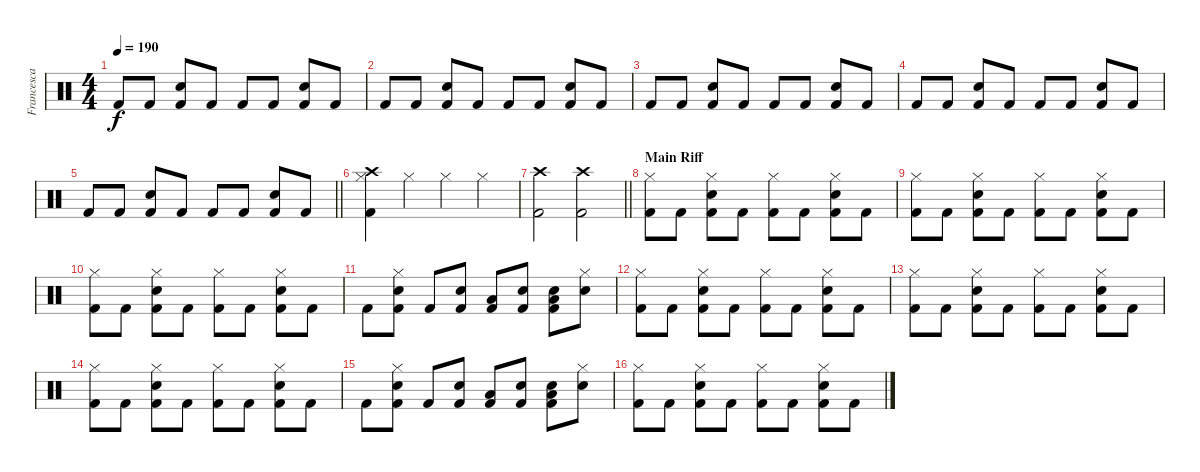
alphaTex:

\track ("Francesca Tresca" "Francesca ") {instrument percussion}
\staff {score}
\articulation defaults
\ts (4 4)
\tempo 190
\clef neutral
\ks c "Kick (hit) 2".8{dy f} "Kick (hit) 2".8
("Snare (hit) 2" "Kick (hit) 2").8 "Kick (hit) 2".8 "Kick (hit) 2".8 "Kick (hit) 2".8 ("Snare (hit) 2" "Kick (hit) 2").8 "Kick (hit) 2".8 |
"Kick (hit) 2".8 "Kick (hit) 2".8 ("Snare (hit) 2" "Kick (hit) 2").8 "Kick (hit) 2".8 "Kick (hit) 2".8 "Kick (hit) 2".8 ("Snare (hit) 2" "Kick (hit) 2").8 "Kick (hit) 2".8 |
"Kick (hit) 2".8 "Kick (hit) 2".8 ("Snare (hit) 2" "Kick (hit) 2").8 "Kick (hit) 2".8 "Kick (hit) 2".8 "Kick (hit) 2".8 ("Snare (hit) 2" "Kick (hit) 2").8 "Kick (hit) 2".8 |
"Kick (hit) 2".8 "Kick (hit) 2".8 ("Snare (hit) 2" "Kick (hit) 2").8 "Kick (hit) 2".8 "Kick (hit) 2".8 "Kick (hit) 2".8 ("Snare (hit) 2" "Kick (hit) 2").8 "Kick (hit) 2".8 |
\barLineRight lightlight "Kick (hit) 2".8 "Kick (hit) 2".8
("Snare (hit) 2" "Kick (hit) 2").8 "Kick (hit) 2".8 "Kick (hit) 2".8 "Kick (hit) 2".8 ("Snare (hit) 2" "Kick (hit) 2").8 "Kick (hit) 2".8 |
("Hi-Hat (closed)" "Crash high (hit)" "Kick (hit) 2").4 "Hi-Hat (closed)".4 "Hi-Hat (closed)".4 "Hi-Hat (closed)".4 |
\barLineRight lightlight
("Crash high (hit)" "Kick (hit) 2").2 ("Crash high (hit)" "Kick (hit) 2").2 |
\section ("" "Main Riff")
("Hi-Hat (closed)" "Kick (hit) 2").8 "Kick (hit) 2".8 ("Hi-Hat (closed)" "Snare (hit) 2" "Kick (hit) 2").8 "Kick (hit) 2".8 ("Hi-Hat (closed)" "Kick (hit) 2").8 "Kick (hit) 2".8 ("Hi-Hat (closed)" "Snare (hit) 2" "Kick (hit) 2").8 "Kick (hit) 2".8 |
("Hi-Hat (closed)" "Kick (hit) 2").8 "Kick (hit) 2".8 ("Hi-Hat (closed)" "Snare (hit) 2" "Kick (hit) 2").8 "Kick (hit) 2".8 ("Hi-Hat (closed)" "Kick (hit) 2").8 "Kick (hit) 2".8 ("Hi-Hat (closed)" "Snare (hit) 2" "Kick (hit) 2").8 "Kick (hit) 2".8 |
("Hi-Hat (closed)" "Kick (hit) 2").8 "Kick (hit) 2".8 ("Hi-Hat (closed)" "Snare (hit) 2" "Kick (hit) 2").8 "Kick (hit) 2".8 ("Hi-Hat (closed)" "Kick (hit) 2").8 "Kick (hit) 2".8 ("Hi-Hat (closed)" "Snare (hit) 2" "Kick (hit) 2").8 "Kick (hit) 2".8 |
"Kick (hit) 2".8 ("Hi-Hat (closed)" "Snare (hit) 2" "Kick (hit) 2").8 "Kick (hit) 2".8 ("Snare (hit) 2" "Kick (hit) 2").8 ("Low Tom (hit)" "Kick (hit) 2").8 ("Snare (hit) 2" "Kick (hit) 2").8 ("Low Tom (hit)" "Snare (hit) 2" "Kick (hit) 2").8 ("Hi-Hat (closed)" "Snare (hit) 2").8 |
("Hi-Hat (closed)" "Kick (hit) 2").8 "Kick (hit) 2".8 ("Hi-Hat (closed)" "Snare (hit) 2" "Kick (hit) 2").8 "Kick (hit) 2".8 ("Hi-Hat (closed)" "Kick (hit) 2").8 "Kick (hit) 2".8 ("Hi-Hat (closed)" "Snare (hit) 2" "Kick (hit) 2").8 "Kick (hit) 2".8 |
("Hi-Hat (closed)" "Kick (hit) 2").8 "Kick (hit) 2".8 ("Hi-Hat (closed)" "Snare (hit) 2" "Kick (hit) 2").8 "Kick (hit) 2".8 ("Hi-Hat (closed)" "Kick (hit) 2").8 "Kick (hit) 2".8 ("Hi-Hat (closed)" "Snare (hit) 2" "Kick (hit) 2").8 "Kick (hit) 2".8 |
("Hi-Hat (closed)" "Kick (hit) 2").8 "Kick (hit) 2".8 ("Hi-Hat (closed)" "Snare (hit) 2" "Kick (hit) 2").8 "Kick (hit) 2".8 ("Hi-Hat (closed)" "Kick (hit) 2").8 "Kick (hit) 2".8 ("Hi-Hat (closed)" "Snare (hit) 2" "Kick (hit) 2").8 "Kick (hit) 2".8 |
"Kick (hit) 2".8 ("Hi-Hat (closed)" "Snare (hit) 2" "Kick (hit) 2").8 "Kick (hit) 2".8 ("Snare (hit) 2" "Kick (hit) 2").8 ("Low Tom (hit)" "Kick (hit) 2").8 ("Snare (hit) 2" "Kick (hit) 2").8 ("Low Tom (hit)" "Snare (hit) 2" "Kick (hit) 2").8 ("Hi-Hat (closed)" "Snare (hit) 2").8 |
("Hi-Hat (closed)" "Kick (hit) 2").8 "Kick (hit) 2".8 ("Hi-Hat (closed)" "Snare (hit) 2" "Kick (hit) 2").8 "Kick (hit) 2".8 ("Hi-Hat (closed)" "Kick (hit) 2").8 "Kick (hit) 2".8 ("Hi-Hat (closed)" "Snare (hit) 2" "Kick (hit) 2").8 "Kick (hit) 2".8
